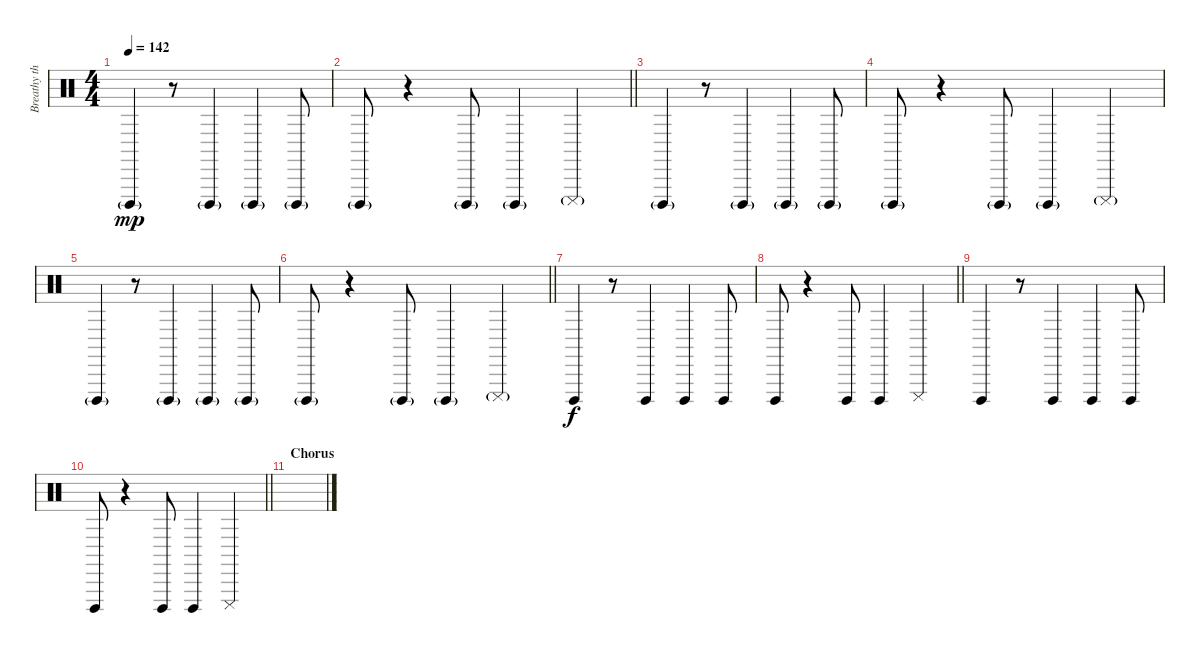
\track ("Breathy things" "Breathy th") {instrument percussion}
\staff {score}
\articulation defaults
\ts (4 4)
\tempo 142
\clef neutral
\ks c "Cuica (open)"{g}.4{dy mp}
r.8 "Cuica (open)"{g}.4 "Cuica (open)"{g}.4 "Cuica (open)"{g}.8 |
\barLineRight lightlight "Cuica (open)"{g}.8
r.4 "Cuica (open)"{g}.8 "Cuica (open)"{g}.4 "Cuica (mute)"{g}.4 |
"Cuica (open)"{g}.4 r.8 "Cuica (open)"{g}.4 "Cuica (open)"{g}.4 "Cuica (open)"{g}.8 |
"Cuica (open)"{g}.8 r.4 "Cuica (open)"{g}.8 "Cuica (open)"{g}.4 "Cuica (mute)"{g}.4 |
"Cuica (open)"{g}.4 r.8 "Cuica (open)"{g}.4 "Cuica (open)"{g}.4 "Cuica (open)"{g}.8 |
\barLineRight lightlight "Cuica (open)"{g}.8
r.4 "Cuica (open)"{g}.8 "Cuica (open)"{g}.4 "Cuica (mute)"{g}.4 |
"Cuica (open)".4{dy f} r.8 "Cuica (open)".4 "Cuica (open)".4 "Cuica (open)".8 |
\barLineRight lightlight "Cuica (open)".8
r.4 "Cuica (open)".8 "Cuica (open)".4 "Cuica (mute)".4 |
"Cuica (open)".4 r.8 "Cuica (open)".4 "Cuica (open)".4 "Cuica (open)".8 |
\barLineRight lightlight "Cuica (open)".8
r.4 "Cuica (open)".8 "Cuica (open)".4 "Cuica (mute)".4 |
\section ("" "Chorus")
